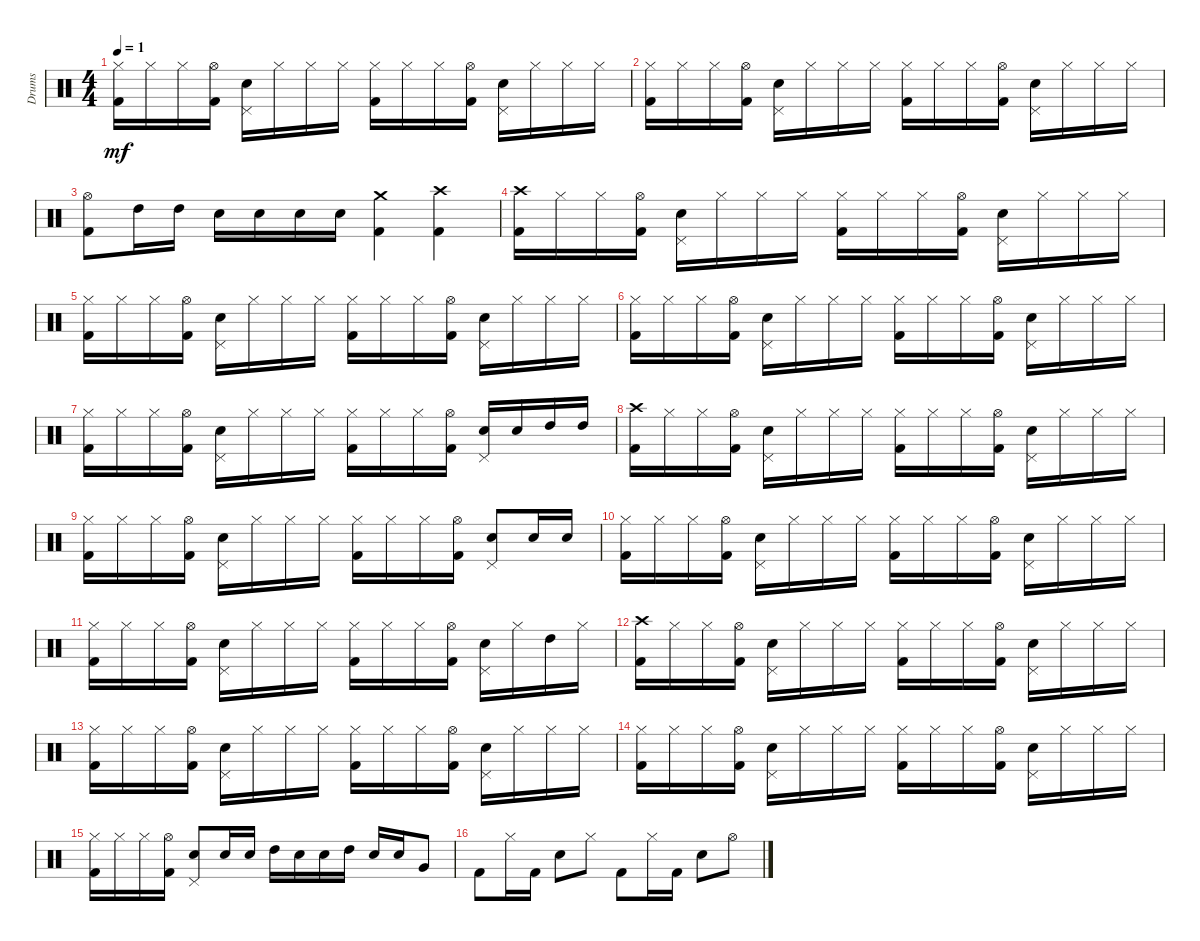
\track ("Drums" "Drums") {instrument percussion}
\staff {score}
\articulation defaults
\ts (4 4)
\tempo 1
\clef neutral
\ks c
("Kick (hit) 2" "Hi-Hat (closed)").16{dy mf} "Hi-Hat (closed)".16 "Hi-Hat (closed)".16 ("Kick (hit) 2" "Hi-Hat (open)").16 ("Snare (hit) 2" "Pedal Hi-Hat (hit)").16 "Hi-Hat (closed)".16 "Hi-Hat (closed)".16 "Hi-Hat (closed)".16 ("Hi-Hat (closed)" "Kick (hit) 2").16 "Hi-Hat (closed)".16 "Hi-Hat (closed)".16 ("Hi-Hat (open)" "Kick (hit) 2").16 ("Snare (hit) 2" "Pedal Hi-Hat (hit)").16 "Hi-Hat (closed)".16 "Hi-Hat (closed)".16 "Hi-Hat (closed)".16 |
("Kick (hit) 2" "Hi-Hat (closed)").16 "Hi-Hat (closed)".16 "Hi-Hat (closed)".16 ("Kick (hit) 2" "Hi-Hat (open)").16 ("Snare (hit) 2" "Pedal Hi-Hat (hit)").16 "Hi-Hat (closed)".16 "Hi-Hat (closed)".16 "Hi-Hat (closed)".16 ("Hi-Hat (closed)" "Kick (hit) 2").16 "Hi-Hat (closed)".16 "Hi-Hat (closed)".16 ("Hi-Hat (open)" "Kick (hit) 2").16 ("Snare (hit) 2" "Pedal Hi-Hat (hit)").16 "Hi-Hat (closed)".16 "Hi-Hat (closed)".16 "Hi-Hat (closed)".16 |
("Hi-Hat (open)" "Kick (hit) 2").8 "High Tom (hit)".16 "High Tom (hit)".16 "Snare (hit) 2".16 "Snare (hit) 2".16 "Snare (hit) 2".16 "Snare (hit) 2".16 ("Kick (hit) 2" "Crash medium (hit)").4 ("Crash high (hit)" "Kick (hit) 2").4 |
("Kick (hit) 2" "Crash high (hit)").16 "Hi-Hat (closed)".16 "Hi-Hat (closed)".16 ("Kick (hit) 2" "Hi-Hat (open)").16 ("Snare (hit) 2" "Pedal Hi-Hat (hit)").16 "Hi-Hat (closed)".16 "Hi-Hat (closed)".16 "Hi-Hat (closed)".16 ("Hi-Hat (closed)" "Kick (hit) 2").16 "Hi-Hat (closed)".16 "Hi-Hat (closed)".16 ("Hi-Hat (open)" "Kick (hit) 2").16 ("Snare (hit) 2" "Pedal Hi-Hat (hit)").16 "Hi-Hat (closed)".16 "Hi-Hat (closed)".16 "Hi-Hat (closed)".16 |
("Kick (hit) 2" "Hi-Hat (closed)").16 "Hi-Hat (closed)".16 "Hi-Hat (closed)".16 ("Kick (hit) 2" "Hi-Hat (open)").16 ("Snare (hit) 2" "Pedal Hi-Hat (hit)").16 "Hi-Hat (closed)".16 "Hi-Hat (closed)".16 "Hi-Hat (closed)".16 ("Hi-Hat (closed)" "Kick (hit) 2").16 "Hi-Hat (closed)".16 "Hi-Hat (closed)".16 ("Hi-Hat (open)" "Kick (hit) 2").16 ("Snare (hit) 2" "Pedal Hi-Hat (hit)").16 "Hi-Hat (closed)".16 "Hi-Hat (closed)".16 "Hi-Hat (closed)".16 |
("Kick (hit) 2" "Hi-Hat (closed)").16 "Hi-Hat (closed)".16 "Hi-Hat (closed)".16 ("Kick (hit) 2" "Hi-Hat (open)").16 ("Snare (hit) 2" "Pedal Hi-Hat (hit)").16 "Hi-Hat (closed)".16 "Hi-Hat (closed)".16 "Hi-Hat (closed)".16 ("Hi-Hat (closed)" "Kick (hit) 2").16 "Hi-Hat (closed)".16 "Hi-Hat (closed)".16 ("Hi-Hat (open)" "Kick (hit) 2").16 ("Snare (hit) 2" "Pedal Hi-Hat (hit)").16 "Hi-Hat (closed)".16 "Hi-Hat (closed)".16 "Hi-Hat (closed)".16 |
("Kick (hit) 2" "Hi-Hat (closed)").16 "Hi-Hat (closed)".16 "Hi-Hat (closed)".16 ("Kick (hit) 2" "Hi-Hat (open)").16 ("Snare (hit) 2" "Pedal Hi-Hat (hit)").16 "Hi-Hat (closed)".16 "Hi-Hat (closed)".16 "Hi-Hat (closed)".16 ("Hi-Hat (closed)" "Kick (hit) 2").16 "Hi-Hat (closed)".16 "Hi-Hat (closed)".16 ("Hi-Hat (open)" "Kick (hit) 2").16 ("Snare (hit) 2" "Pedal Hi-Hat (hit)").16 "Snare (hit) 2".16 "High Tom (hit)".16 "High Tom (hit)".16 |
("Kick (hit) 2" "Crash high (hit)").16 "Hi-Hat (closed)".16 "Hi-Hat (closed)".16 ("Kick (hit) 2" "Hi-Hat (open)").16 ("Snare (hit) 2" "Pedal Hi-Hat (hit)").16 "Hi-Hat (closed)".16 "Hi-Hat (closed)".16 "Hi-Hat (closed)".16 ("Hi-Hat (closed)" "Kick (hit) 2").16 "Hi-Hat (closed)".16 "Hi-Hat (closed)".16 ("Hi-Hat (open)" "Kick (hit) 2").16 ("Snare (hit) 2" "Pedal Hi-Hat (hit)").16 "Hi-Hat (closed)".16 "Hi-Hat (closed)".16 "Hi-Hat (closed)".16 |
("Kick (hit) 2" "Hi-Hat (closed)").16 "Hi-Hat (closed)".16 "Hi-Hat (closed)".16 ("Kick (hit) 2" "Hi-Hat (open)").16 ("Snare (hit) 2" "Pedal Hi-Hat (hit)").16 "Hi-Hat (closed)".16 "Hi-Hat (closed)".16 "Hi-Hat (closed)".16 ("Hi-Hat (closed)" "Kick (hit) 2").16 "Hi-Hat (closed)".16 "Hi-Hat (closed)".16 ("Hi-Hat (open)" "Kick (hit) 2").16 ("Snare (hit) 2" "Pedal Hi-Hat (hit)").8 "Snare (hit) 2".16 "Snare (hit) 2".16 |
("Kick (hit) 2" "Hi-Hat (closed)").16 "Hi-Hat (closed)".16 "Hi-Hat (closed)".16 ("Kick (hit) 2" "Hi-Hat (open)").16 ("Snare (hit) 2" "Pedal Hi-Hat (hit)").16 "Hi-Hat (closed)".16 "Hi-Hat (closed)".16 "Hi-Hat (closed)".16 ("Hi-Hat (closed)" "Kick (hit) 2").16 "Hi-Hat (closed)".16 "Hi-Hat (closed)".16 ("Hi-Hat (open)" "Kick (hit) 2").16 ("Snare (hit) 2" "Pedal Hi-Hat (hit)").16 "Hi-Hat (closed)".16 "Hi-Hat (closed)".16 "Hi-Hat (closed)".16 |
("Kick (hit) 2" "Hi-Hat (closed)").16 "Hi-Hat (closed)".16 "Hi-Hat (closed)".16 ("Kick (hit) 2" "Hi-Hat (open)").16 ("Snare (hit) 2" "Pedal Hi-Hat (hit)").16 "Hi-Hat (closed)".16 "Hi-Hat (closed)".16 "Hi-Hat (closed)".16 ("Hi-Hat (closed)" "Kick (hit) 2").16 "Hi-Hat (closed)".16 "Hi-Hat (closed)".16 ("Hi-Hat (open)" "Kick (hit) 2").16 ("Snare (hit) 2" "Pedal Hi-Hat (hit)").16 "Hi-Hat (closed)".16 "High Tom (hit)".16 "Hi-Hat (closed)".16 |
("Kick (hit) 2" "Crash high (hit)").16 "Hi-Hat (closed)".16 "Hi-Hat (closed)".16 ("Kick (hit) 2" "Hi-Hat (open)").16 ("Snare (hit) 2" "Pedal Hi-Hat (hit)").16 "Hi-Hat (closed)".16 "Hi-Hat (closed)".16 "Hi-Hat (closed)".16 ("Hi-Hat (closed)" "Kick (hit) 2").16 "Hi-Hat (closed)".16 "Hi-Hat (closed)".16 ("Hi-Hat (open)" "Kick (hit) 2").16 ("Snare (hit) 2" "Pedal Hi-Hat (hit)").16 "Hi-Hat (closed)".16 "Hi-Hat (closed)".16 "Hi-Hat (closed)".16 |
("Kick (hit) 2" "Hi-Hat (closed)").16 "Hi-Hat (closed)".16 "Hi-Hat (closed)".16 ("Kick (hit) 2" "Hi-Hat (open)").16 ("Snare (hit) 2" "Pedal Hi-Hat (hit)").16 "Hi-Hat (closed)".16 "Hi-Hat (closed)".16 "Hi-Hat (closed)".16 ("Hi-Hat (closed)" "Kick (hit) 2").16 "Hi-Hat (closed)".16 "Hi-Hat (closed)".16 ("Hi-Hat (open)" "Kick (hit) 2").16 ("Snare (hit) 2" "Pedal Hi-Hat (hit)").16 "Hi-Hat (closed)".16 "Hi-Hat (closed)".16 "Hi-Hat (closed)".16 |
("Kick (hit) 2" "Hi-Hat (closed)").16 "Hi-Hat (closed)".16 "Hi-Hat (closed)".16 ("Kick (hit) 2" "Hi-Hat (open)").16 ("Snare (hit) 2" "Pedal Hi-Hat (hit)").16 "Hi-Hat (closed)".16 "Hi-Hat (closed)".16 "Hi-Hat (closed)".16 ("Hi-Hat (closed)" "Kick (hit) 2").16 "Hi-Hat (closed)".16 "Hi-Hat (closed)".16 ("Hi-Hat (open)" "Kick (hit) 2").16 ("Snare (hit) 2" "Pedal Hi-Hat (hit)").16 "Hi-Hat (closed)".16 "Hi-Hat (closed)".16 "Hi-Hat (closed)".16 |
("Kick (hit) 2" "Hi-Hat (closed)").16 "Hi-Hat (closed)".16 "Hi-Hat (closed)".16 ("Kick (hit) 2" "Hi-Hat (open)").16 ("Snare (hit) 2" "Pedal Hi-Hat (hit)").8 "Snare (hit) 2".16 "Snare (hit) 2".16 "High Tom (hit)".16 "Snare (hit) 2".16 "Snare (hit) 2".16 "High Tom (hit)".16 "Snare (hit) 2".16 "Snare (hit) 2".16 "Very Low Tom (hit)".8 |
"Kick (hit) 2".8 "Hi-Hat (closed)".16 "Kick (hit) 2".16 "Snare (hit) 2".8 "Hi-Hat (closed)".8 "Kick (hit) 2".8 "Hi-Hat (closed)".16 "Kick (hit) 2".16 "Snare (hit) 2".8 "Hi-Hat (open)".8
